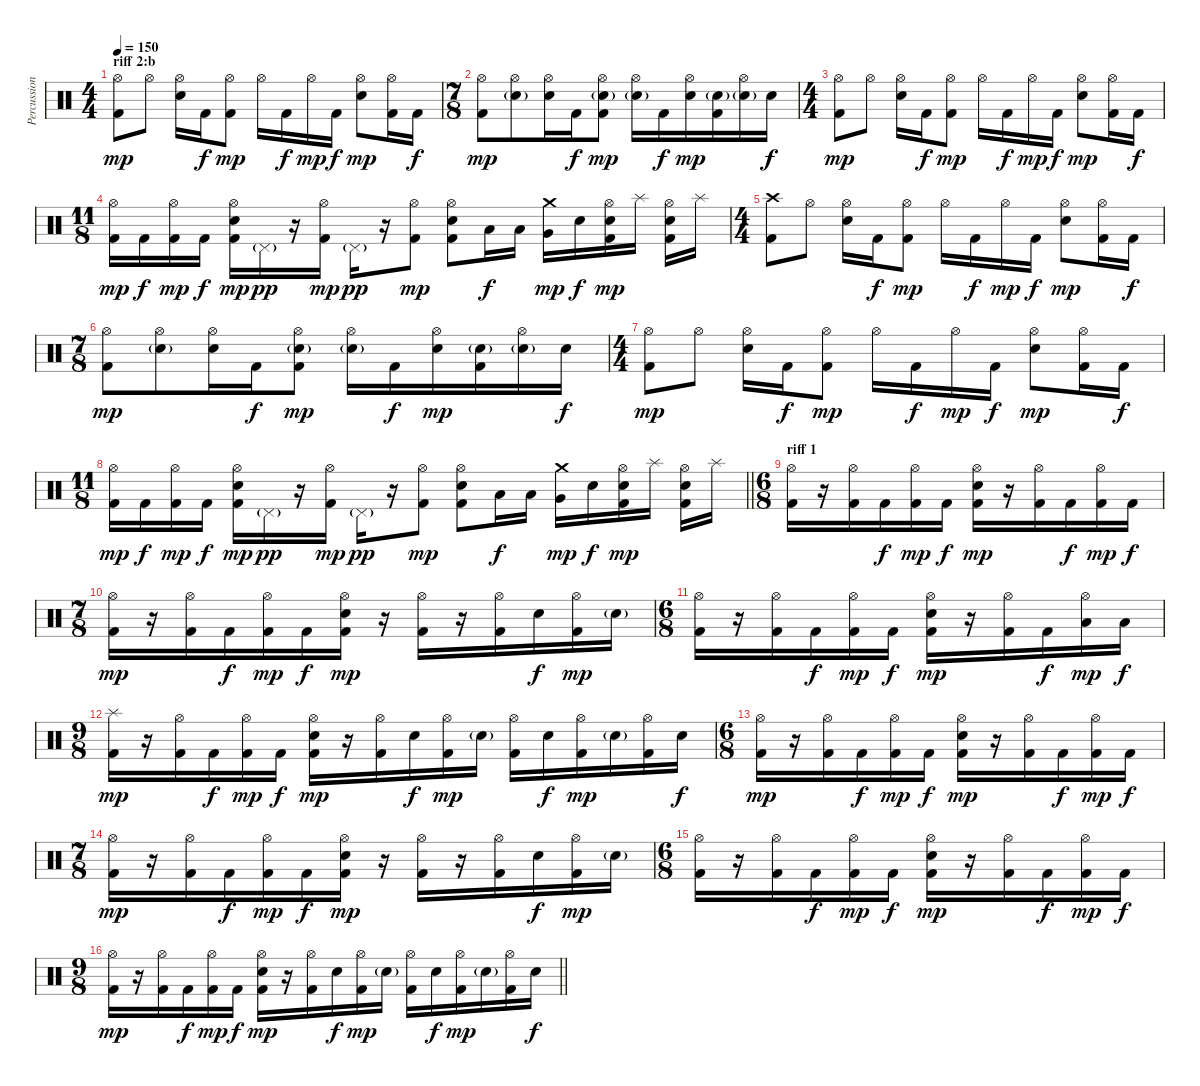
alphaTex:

\track ("Percussion" "Percussion") {instrument percussion}
\staff {score}
\articulation defaults
\ts (4 4)
\section ("" "riff 2:b")
\tempo 150
\clef neutral
\ks c
("Hi-Hat (open)" "Kick (hit) 2").8{dy mp} "Hi-Hat (open)".8 ("Hi-Hat (open)" "Electric Snare (hit)").16 "Kick (hit) 2".16{dy f} ("Hi-Hat (open)" "Kick (hit) 2").8{dy mp} "Hi-Hat (open)".16 "Kick (hit) 2".16{dy f} "Hi-Hat (open)".16{dy mp} "Kick (hit) 2".16{dy f} ("Hi-Hat (open)" "Electric Snare (hit)").8{dy mp} ("Hi-Hat (open)" "Kick (hit) 2").16 "Kick (hit) 2".16{dy f} |
\ts (7 8)
("Hi-Hat (open)" "Kick (hit) 2").8{dy mp} ("Hi-Hat (open)" "Electric Snare (hit)"{g}).8 ("Hi-Hat (open)" "Electric Snare (hit)").16 "Kick (hit) 2".16{dy f} ("Hi-Hat (open)" "Electric Snare (hit)"{g} "Kick (hit) 2").8{dy mp} ("Hi-Hat (open)" "Electric Snare (hit)"{g}).16 "Kick (hit) 2".16{dy f} ("Hi-Hat (open)" "Electric Snare (hit)").16{dy mp} ("Electric Snare (hit)"{g} "Kick (hit) 2").16 ("Hi-Hat (open)" "Electric Snare (hit)"{g}).16 "Electric Snare (hit)".16{dy f} |
\ts (4 4)
("Hi-Hat (open)" "Kick (hit) 2").8{dy mp} "Hi-Hat (open)".8 ("Hi-Hat (open)" "Electric Snare (hit)").16 "Kick (hit) 2".16{dy f} ("Hi-Hat (open)" "Kick (hit) 2").8{dy mp} "Hi-Hat (open)".16 "Kick (hit) 2".16{dy f} "Hi-Hat (open)".16{dy mp} "Kick (hit) 2".16{dy f} ("Hi-Hat (open)" "Electric Snare (hit)").8{dy mp} ("Hi-Hat (open)" "Kick (hit) 2").16 "Kick (hit) 2".16{dy f} |
\ts (11 8)
("Hi-Hat (open)" "Kick (hit) 2").16{dy mp} "Kick (hit) 2".16{dy f} ("Hi-Hat (open)" "Kick (hit) 2").16{dy mp} "Kick (hit) 2".16{dy f} ("Hi-Hat (open)" "Electric Snare (hit)" "Kick (hit) 2").16{dy mp} "Pedal Hi-Hat (hit)"{g}.16{dy pp} r.16 ("Hi-Hat (open)" "Kick (hit) 2").16{dy mp} "Pedal Hi-Hat (hit)"{g}.16{dy pp} r.16 ("Hi-Hat (open)" "Kick (hit) 2").8{dy mp} ("Hi-Hat (open)" "Electric Snare (hit)" "Kick (hit) 2").8 "Low Tom (hit)".16{dy f} "Low Tom (hit)".16 ("Crash medium (hit)" "Very Low Tom (hit)").16{dy mp} "Electric Snare (hit)".16{dy f} ("Hi-Hat (open)" "Electric Snare (hit)" "Kick (hit) 2").16{dy mp} "Splash (hit)".16 ("Hi-Hat (open)" "Electric Snare (hit)" "Kick (hit) 2").16 "Splash (hit)".16 |
\ts (4 4)
("Crash high (hit)" "Kick (hit) 2").8 "Hi-Hat (open)".8 ("Hi-Hat (open)" "Electric Snare (hit)").16 "Kick (hit) 2".16{dy f} ("Hi-Hat (open)" "Kick (hit) 2").8{dy mp} "Hi-Hat (open)".16 "Kick (hit) 2".16{dy f} "Hi-Hat (open)".16{dy mp} "Kick (hit) 2".16{dy f} ("Hi-Hat (open)" "Electric Snare (hit)").8{dy mp} ("Hi-Hat (open)" "Kick (hit) 2").16 "Kick (hit) 2".16{dy f} |
\ts (7 8)
("Hi-Hat (open)" "Kick (hit) 2").8{dy mp} ("Hi-Hat (open)" "Electric Snare (hit)"{g}).8 ("Hi-Hat (open)" "Electric Snare (hit)").16 "Kick (hit) 2".16{dy f} ("Hi-Hat (open)" "Electric Snare (hit)"{g} "Kick (hit) 2").8{dy mp} ("Hi-Hat (open)" "Electric Snare (hit)"{g}).16 "Kick (hit) 2".16{dy f} ("Hi-Hat (open)" "Electric Snare (hit)").16{dy mp} ("Electric Snare (hit)"{g} "Kick (hit) 2").16 ("Hi-Hat (open)" "Electric Snare (hit)"{g}).16 "Electric Snare (hit)".16{dy f} |
\ts (4 4)
("Hi-Hat (open)" "Kick (hit) 2").8{dy mp} "Hi-Hat (open)".8 ("Hi-Hat (open)" "Electric Snare (hit)").16 "Kick (hit) 2".16{dy f} ("Hi-Hat (open)" "Kick (hit) 2").8{dy mp} "Hi-Hat (open)".16 "Kick (hit) 2".16{dy f} "Hi-Hat (open)".16{dy mp} "Kick (hit) 2".16{dy f} ("Hi-Hat (open)" "Electric Snare (hit)").8{dy mp} ("Hi-Hat (open)" "Kick (hit) 2").16 "Kick (hit) 2".16{dy f} |
\ts (11 8)
\barLineRight lightlight
("Hi-Hat (open)" "Kick (hit) 2").16{dy mp} "Kick (hit) 2".16{dy f} ("Hi-Hat (open)" "Kick (hit) 2").16{dy mp} "Kick (hit) 2".16{dy f} ("Hi-Hat (open)" "Electric Snare (hit)" "Kick (hit) 2").16{dy mp} "Pedal Hi-Hat (hit)"{g}.16{dy pp} r.16 ("Hi-Hat (open)" "Kick (hit) 2").16{dy mp} "Pedal Hi-Hat (hit)"{g}.16{dy pp} r.16 ("Hi-Hat (open)" "Kick (hit) 2").8{dy mp} ("Hi-Hat (open)" "Electric Snare (hit)" "Kick (hit) 2").8 "Low Tom (hit)".16{dy f} "Low Tom (hit)".16 ("Crash medium (hit)" "Very Low Tom (hit)").16{dy mp} "Electric Snare (hit)".16{dy f} ("Hi-Hat (open)" "Electric Snare (hit)" "Kick (hit) 2").16{dy mp} "Splash (hit)".16 ("Hi-Hat (open)" "Electric Snare (hit)" "Kick (hit) 2").16 "Splash (hit)".16 |
\ts (6 8)
\section ("" "riff 1")
("Hi-Hat (open)" "Kick (hit) 2").16 r.16 ("Hi-Hat (open)" "Kick (hit) 2").16 "Kick (hit) 2".16{dy f} ("Hi-Hat (open)" "Kick (hit) 2").16{dy mp} "Kick (hit) 2".16{dy f} ("Hi-Hat (open)" "Electric Snare (hit)" "Kick (hit) 2").16{dy mp} r.16 ("Hi-Hat (open)" "Kick (hit) 2").16 "Kick (hit) 2".16{dy f} ("Hi-Hat (open)" "Kick (hit) 2").16{dy mp} "Kick (hit) 2".16{dy f} |
\ts (7 8)
("Hi-Hat (open)" "Kick (hit) 2").16{dy mp} r.16 ("Hi-Hat (open)" "Kick (hit) 2").16 "Kick (hit) 2".16{dy f} ("Hi-Hat (open)" "Kick (hit) 2").16{dy mp} "Kick (hit) 2".16{dy f} ("Hi-Hat (open)" "Electric Snare (hit)" "Kick (hit) 2").16{dy mp} r.16 ("Hi-Hat (open)" "Kick (hit) 2").16 r.16 ("Hi-Hat (open)" "Kick (hit) 2").16 "Electric Snare (hit)".16{dy f} ("Hi-Hat (open)" "Kick (hit) 2").16{dy mp} "Electric Snare (hit)"{g}.16 |
\ts (6 8)
("Hi-Hat (open)" "Kick (hit) 2").16 r.16 ("Hi-Hat (open)" "Kick (hit) 2").16 "Kick (hit) 2".16{dy f} ("Hi-Hat (open)" "Kick (hit) 2").16{dy mp} "Kick (hit) 2".16{dy f} ("Hi-Hat (open)" "Electric Snare (hit)" "Kick (hit) 2").16{dy mp} r.16 ("Hi-Hat (open)" "Kick (hit) 2").16 "Kick (hit) 2".16{dy f} ("Hi-Hat (open)" "Low Tom (hit)").16{dy mp} "Low Tom (hit)".16{dy f} |
\ts (9 8)
("Splash (hit)" "Kick (hit) 2").16{dy mp} r.16 ("Hi-Hat (open)" "Kick (hit) 2").16 "Kick (hit) 2".16{dy f} ("Hi-Hat (open)" "Kick (hit) 2").16{dy mp} "Kick (hit) 2".16{dy f} ("Hi-Hat (open)" "Electric Snare (hit)" "Kick (hit) 2").16{dy mp} r.16 ("Hi-Hat (open)" "Kick (hit) 2").16 "Electric Snare (hit)".16{dy f} ("Hi-Hat (open)" "Kick (hit) 2").16{dy mp} "Electric Snare (hit)"{g}.16 ("Hi-Hat (open)" "Kick (hit) 2").16 "Electric Snare (hit)".16{dy f} ("Hi-Hat (open)" "Kick (hit) 2").16{dy mp} "Electric Snare (hit)"{g}.16 ("Hi-Hat (open)" "Kick (hit) 2").16 "Electric Snare (hit)".16{dy f} |
\ts (6 8)
("Hi-Hat (open)" "Kick (hit) 2").16{dy mp} r.16 ("Hi-Hat (open)" "Kick (hit) 2").16 "Kick (hit) 2".16{dy f} ("Hi-Hat (open)" "Kick (hit) 2").16{dy mp} "Kick (hit) 2".16{dy f} ("Hi-Hat (open)" "Electric Snare (hit)" "Kick (hit) 2").16{dy mp} r.16 ("Hi-Hat (open)" "Kick (hit) 2").16 "Kick (hit) 2".16{dy f} ("Hi-Hat (open)" "Kick (hit) 2").16{dy mp} "Kick (hit) 2".16{dy f} |
\ts (7 8)
("Hi-Hat (open)" "Kick (hit) 2").16{dy mp} r.16 ("Hi-Hat (open)" "Kick (hit) 2").16 "Kick (hit) 2".16{dy f} ("Hi-Hat (open)" "Kick (hit) 2").16{dy mp} "Kick (hit) 2".16{dy f} ("Hi-Hat (open)" "Electric Snare (hit)" "Kick (hit) 2").16{dy mp} r.16 ("Hi-Hat (open)" "Kick (hit) 2").16 r.16 ("Hi-Hat (open)" "Kick (hit) 2").16 "Electric Snare (hit)".16{dy f} ("Hi-Hat (open)" "Kick (hit) 2").16{dy mp} "Electric Snare (hit)"{g}.16 |
\ts (6 8)
("Hi-Hat (open)" "Kick (hit) 2").16 r.16 ("Hi-Hat (open)" "Kick (hit) 2").16 "Kick (hit) 2".16{dy f} ("Hi-Hat (open)" "Kick (hit) 2").16{dy mp} "Kick (hit) 2".16{dy f} ("Hi-Hat (open)" "Electric Snare (hit)" "Kick (hit) 2").16{dy mp} r.16 ("Hi-Hat (open)" "Kick (hit) 2").16 "Kick (hit) 2".16{dy f} ("Hi-Hat (open)" "Kick (hit) 2").16{dy mp} "Kick (hit) 2".16{dy f} |
\ts (9 8)
\barLineRight lightlight
("Hi-Hat (open)" "Kick (hit) 2").16{dy mp} r.16 ("Hi-Hat (open)" "Kick (hit) 2").16 "Kick (hit) 2".16{dy f} ("Hi-Hat (open)" "Kick (hit) 2").16{dy mp} "Kick (hit) 2".16{dy f} ("Hi-Hat (open)" "Electric Snare (hit)" "Kick (hit) 2").16{dy mp} r.16 ("Hi-Hat (open)" "Kick (hit) 2").16 "Electric Snare (hit)".16{dy f} ("Hi-Hat (open)" "Kick (hit) 2").16{dy mp} "Electric Snare (hit)"{g}.16 ("Hi-Hat (open)" "Kick (hit) 2").16 "Electric Snare (hit)".16{dy f} ("Hi-Hat (open)" "Kick (hit) 2").16{dy mp} "Electric Snare (hit)"{g}.16 ("Hi-Hat (open)" "Kick (hit) 2").16 "Electric Snare (hit)".16{dy f}
